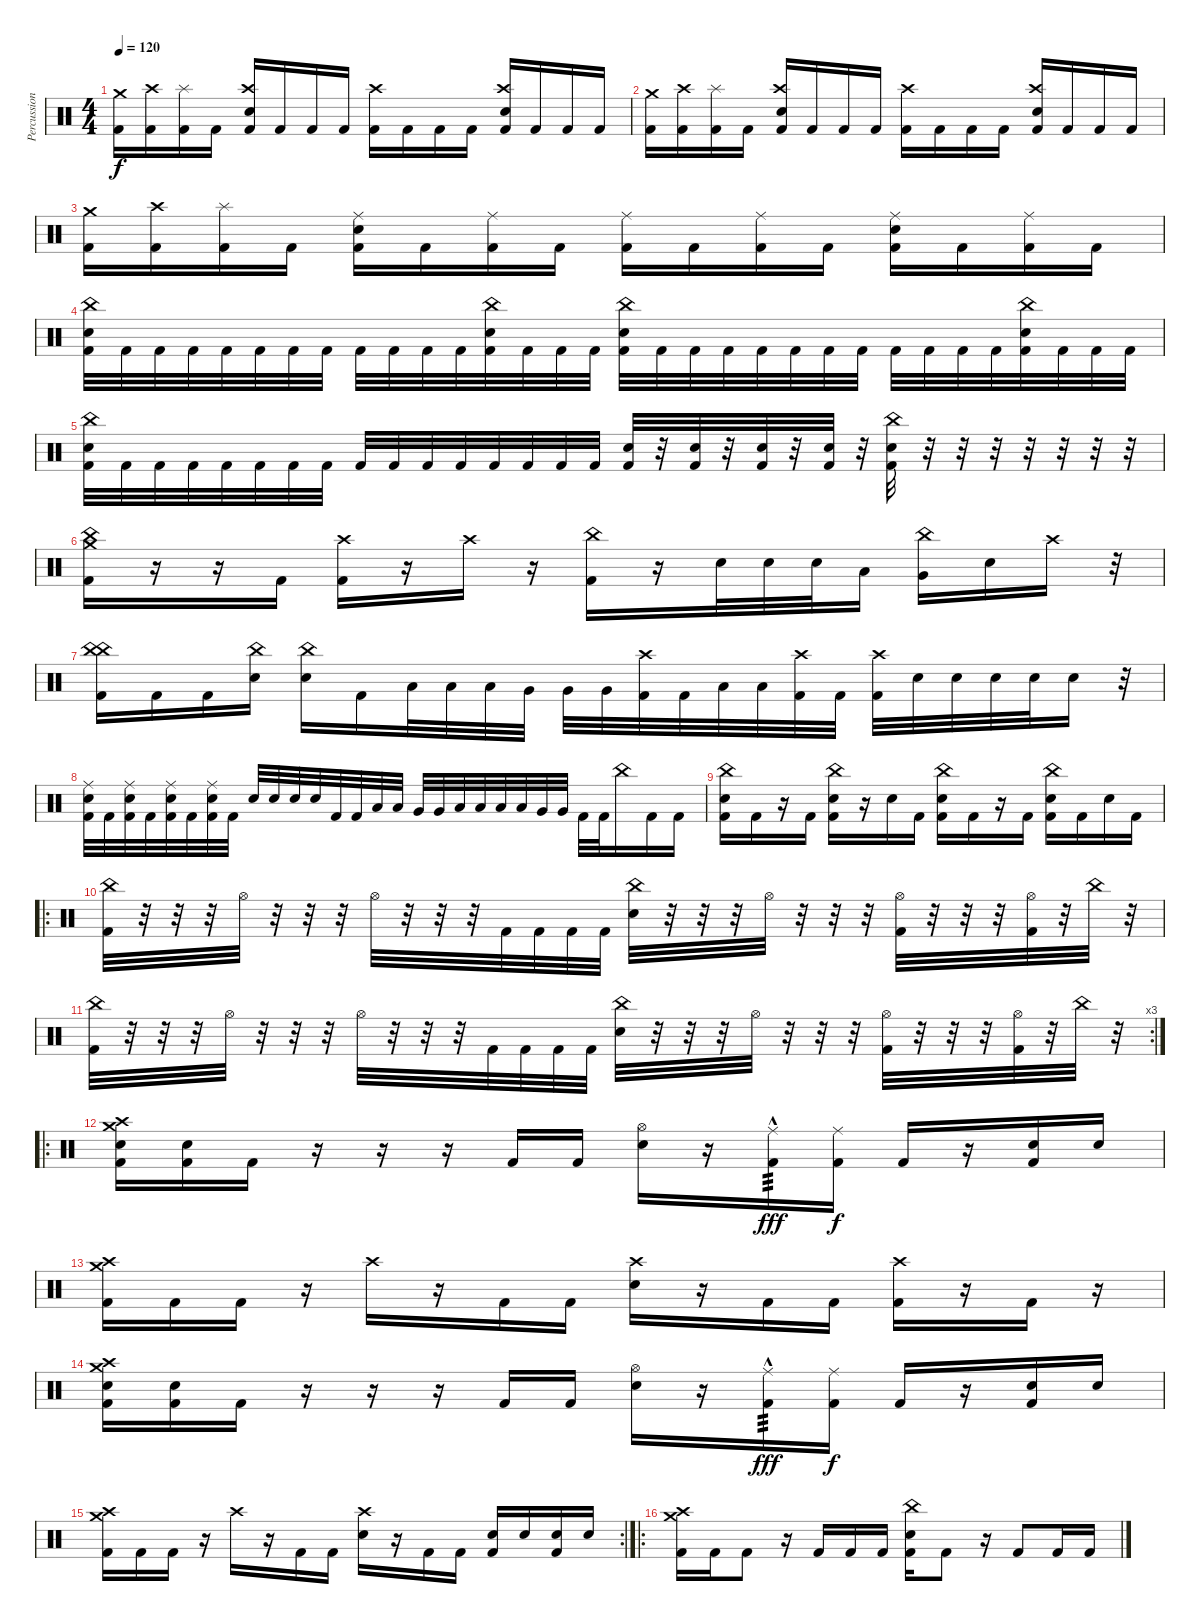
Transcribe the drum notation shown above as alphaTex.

\track ("Percussion" "Percussion") {instrument percussion bank 177}
\staff
\articulation defaults
\ts (4 4)
\tempo 120
\clef neutral
\ks c
("Crash medium (hit)" "Kick (hit) 2").16{dy f} ("Crash high (hit)" "Kick (hit) 2").16 ("Splash (hit)" "Kick (hit) 2").16 "Kick (hit) 2".16 ("Crash high (hit)" "Electric Snare (hit)" "Kick (hit) 2").16 "Kick (hit) 2".16 "Kick (hit) 2".16 "Kick (hit) 2".16 ("Crash high (hit)" "Kick (hit) 2").16 "Kick (hit) 2".16 "Kick (hit) 2".16 "Kick (hit) 2".16 ("Crash high (hit)" "Electric Snare (hit)" "Kick (hit) 2").16 "Kick (hit) 2".16 "Kick (hit) 2".16 "Kick (hit) 2".16 |
("Crash medium (hit)" "Kick (hit) 2").16 ("Crash high (hit)" "Kick (hit) 2").16 ("Splash (hit)" "Kick (hit) 2").16 "Kick (hit) 2".16 ("Crash high (hit)" "Electric Snare (hit)" "Kick (hit) 2").16 "Kick (hit) 2".16 "Kick (hit) 2".16 "Kick (hit) 2".16 ("Crash high (hit)" "Kick (hit) 2").16 "Kick (hit) 2".16 "Kick (hit) 2".16 "Kick (hit) 2".16 ("Crash high (hit)" "Electric Snare (hit)" "Kick (hit) 2").16 "Kick (hit) 2".16 "Kick (hit) 2".16 "Kick (hit) 2".16 |
("Crash medium (hit)" "Kick (hit) 2").16 ("Crash high (hit)" "Kick (hit) 2").16 ("Splash (hit)" "Kick (hit) 2").16 "Kick (hit) 2".16 ("Ride (middle)" "Electric Snare (hit)" "Kick (hit) 2").16 "Kick (hit) 2".16 ("Ride (middle)" "Kick (hit) 2").16 "Kick (hit) 2".16 ("Ride (middle)" "Kick (hit) 2").16 "Kick (hit) 2".16 ("Ride (middle)" "Kick (hit) 2").16 "Kick (hit) 2".16 ("Ride (middle)" "Electric Snare (hit)" "Kick (hit) 2").16 "Kick (hit) 2".16 ("Ride (middle)" "Kick (hit) 2").16 "Kick (hit) 2".16 |
("China (hit)" "Electric Snare (hit)" "Kick (hit) 2").32 "Kick (hit) 2".32 "Kick (hit) 2".32 "Kick (hit) 2".32 "Kick (hit) 2".32 "Kick (hit) 2".32 "Kick (hit) 2".32 "Kick (hit) 2".32 "Kick (hit) 2".32 "Kick (hit) 2".32 "Kick (hit) 2".32 "Kick (hit) 2".32 ("China (hit)" "Electric Snare (hit)" "Kick (hit) 2").32 "Kick (hit) 2".32 "Kick (hit) 2".32 "Kick (hit) 2".32 ("China (hit)" "Electric Snare (hit)" "Kick (hit) 2").32 "Kick (hit) 2".32 "Kick (hit) 2".32 "Kick (hit) 2".32 "Kick (hit) 2".32 "Kick (hit) 2".32 "Kick (hit) 2".32 "Kick (hit) 2".32 "Kick (hit) 2".32 "Kick (hit) 2".32 "Kick (hit) 2".32 "Kick (hit) 2".32 ("China (hit)" "Electric Snare (hit)" "Kick (hit) 2").32 "Kick (hit) 2".32 "Kick (hit) 2".32 "Kick (hit) 2".32 |
("China (hit)" "Electric Snare (hit)" "Kick (hit) 2").32 "Kick (hit) 2".32 "Kick (hit) 2".32 "Kick (hit) 2".32 "Kick (hit) 2".32 "Kick (hit) 2".32 "Kick (hit) 2".32 "Kick (hit) 2".32 "Kick (hit) 2".32 "Kick (hit) 2".32 "Kick (hit) 2".32 "Kick (hit) 2".32 "Kick (hit) 2".32 "Kick (hit) 2".32 "Kick (hit) 2".32 "Kick (hit) 2".32 ("Electric Snare (hit)" "Kick (hit) 2").32 r.32 ("Electric Snare (hit)" "Kick (hit) 2").32 r.32 ("Electric Snare (hit)" "Kick (hit) 2").32 r.32 ("Electric Snare (hit)" "Kick (hit) 2").32 r.32 ("China (hit)" "Electric Snare (hit)" "Kick (hit) 2").32 r.32 r.32 r.32 r.32 r.32 r.32 r.32 |
("Crash medium (hit)" "China (hit)" "Kick (hit) 2").16 r.16 r.16 "Kick (hit) 2".16 ("Crash high (hit)" "Kick (hit) 2").16 r.16 "Crash high (hit)".16 r.16 ("China (hit)" "Kick (hit) 2").16 r.16 "Electric Snare (hit)".32 "Electric Snare (hit)".32 "Electric Snare (hit)".32 "Low Floor Tom (hit)".16 ("China (hit)" "Very Low Tom (hit)").16 "Electric Snare (hit)".16 "Crash high (hit)".16 r.32 |
("China (hit)" "China (hit)" "Kick (hit) 2").16 "Kick (hit) 2".16 "Kick (hit) 2".16 ("China (hit)" "Electric Snare (hit)").16 ("China (hit)" "Electric Snare (hit)").16 "Kick (hit) 2".16 "Low Floor Tom (hit)".32 "Low Floor Tom (hit)".32 "Low Floor Tom (hit)".32 "Very Low Tom (hit)".32 "Very Low Tom (hit)".32 "Very Low Tom (hit)".32 ("Crash high (hit)" "Kick (hit) 2").32 "Kick (hit) 2".32 "Low Tom (hit)".32 "Low Tom (hit)".32 ("Crash high (hit)" "Kick (hit) 2").32 "Kick (hit) 2".32 ("Crash high (hit)" "Kick (hit) 2").32 "Electric Snare (hit)".32 "Electric Snare (hit)".32 "Electric Snare (hit)".32 "Electric Snare (hit)".32 "Electric Snare (hit)".16 r.32 |
("Ride (middle)" "Electric Snare (hit)" "Kick (hit) 2").32 "Kick (hit) 2".32 ("Ride (middle)" "Electric Snare (hit)" "Kick (hit) 2").32 "Kick (hit) 2".32 ("Ride (middle)" "Electric Snare (hit)" "Kick (hit) 2").32 "Kick (hit) 2".32 ("Ride (middle)" "Electric Snare (hit)" "Kick (hit) 2").32 "Kick (hit) 2".32 "Electric Snare (hit)".32 "Electric Snare (hit)".32 "Electric Snare (hit)".32 "Electric Snare (hit)".32 "Kick (hit) 2".32 "Kick (hit) 2".32 "Low Floor Tom (hit)".32 "Low Floor Tom (hit)".32 "Very Low Tom (hit)".32 "Very Low Tom (hit)".32 "Low Floor Tom (hit)".32 "Low Floor Tom (hit)".32 "Low Floor Tom (hit)".32 "Low Floor Tom (hit)".32 "Very Low Tom (hit)".32 "Very Low Tom (hit)".32 "Kick (hit) 2".32 "Kick (hit) 2".32 "China (hit)".16 "Kick (hit) 2".16 "Kick (hit) 2".16 |
("China (hit)" "Electric Snare (hit)" "Kick (hit) 2").16 "Kick (hit) 2".16 r.16 "Kick (hit) 2".16 ("China (hit)" "Electric Snare (hit)" "Kick (hit) 2").16 r.16 "Electric Snare (hit)".16 "Kick (hit) 2".16 ("China (hit)" "Electric Snare (hit)" "Kick (hit) 2").16 "Kick (hit) 2".16 r.16 "Kick (hit) 2".16 ("China (hit)" "Electric Snare (hit)" "Kick (hit) 2").16 "Kick (hit) 2".16 "Electric Snare (hit)".16 "Kick (hit) 2".16 |
\ro
("China (hit)" "Kick (hit) 2").32 r.32 r.32 r.32 "Hi-Hat (open)".32 r.32 r.32 r.32 "Hi-Hat (open)".32 r.32 r.32 r.32 "Kick (hit) 2".32 "Kick (hit) 2".32 "Kick (hit) 2".32 "Kick (hit) 2".32 ("China (hit)" "Electric Snare (hit)").32 r.32 r.32 r.32 "Hi-Hat (open)".32 r.32 r.32 r.32 ("Hi-Hat (open)" "Kick (hit) 2").32 r.32 r.32 r.32 ("Hi-Hat (open)" "Kick (hit) 2").32 r.32 "China (hit)".32 r.32 |
\rc 3
("China (hit)" "Kick (hit) 2").32 r.32 r.32 r.32 "Hi-Hat (open)".32 r.32 r.32 r.32 "Hi-Hat (open)".32 r.32 r.32 r.32 "Kick (hit) 2".32 "Kick (hit) 2".32 "Kick (hit) 2".32 "Kick (hit) 2".32 ("China (hit)" "Electric Snare (hit)").32 r.32 r.32 r.32 "Hi-Hat (open)".32 r.32 r.32 r.32 ("Hi-Hat (open)" "Kick (hit) 2").32 r.32 r.32 r.32 ("Hi-Hat (open)" "Kick (hit) 2").32 r.32 "China (hit)".32 r.32 |
\ro
("Crash medium (hit)" "Crash high (hit)" "Electric Snare (hit)" "Kick (hit) 2").16 ("Electric Snare (hit)" "Kick (hit) 2").16 "Kick (hit) 2".16 r.16 r.16 r.16 "Kick (hit) 2".16 "Kick (hit) 2".16 ("Hi-Hat (open)" "Electric Snare (hit)").16 r.16 ("Ride (middle)"{hac} "Kick (hit) 2").16{tp 3 dy fff} ("Ride (middle)" "Kick (hit) 2").16{dy f} "Kick (hit) 2".16 r.16 ("Electric Snare (hit)" "Kick (hit) 2").16 "Electric Snare (hit)".16 |
("Crash medium (hit)" "Crash high (hit)" "Kick (hit) 2").16 "Kick (hit) 2".16 "Kick (hit) 2".16 r.16 "Crash high (hit)".16 r.16 "Kick (hit) 2".16 "Kick (hit) 2".16 ("Crash high (hit)" "Electric Snare (hit)").16 r.16 "Kick (hit) 2".16 "Kick (hit) 2".16 ("Crash high (hit)" "Kick (hit) 2").16 r.16 "Kick (hit) 2".16 r.16 |
("Crash medium (hit)" "Crash high (hit)" "Electric Snare (hit)" "Kick (hit) 2").16 ("Electric Snare (hit)" "Kick (hit) 2").16 "Kick (hit) 2".16 r.16 r.16 r.16 "Kick (hit) 2".16 "Kick (hit) 2".16 ("Hi-Hat (open)" "Electric Snare (hit)").16 r.16 ("Ride (middle)"{hac} "Kick (hit) 2").16{tp 3 dy fff} ("Ride (middle)" "Kick (hit) 2").16{dy f} "Kick (hit) 2".16 r.16 ("Electric Snare (hit)" "Kick (hit) 2").16 "Electric Snare (hit)".16 |
\rc 2
("Crash medium (hit)" "Crash high (hit)" "Kick (hit) 2").16 "Kick (hit) 2".16 "Kick (hit) 2".16 r.16 "Crash high (hit)".16 r.16 "Kick (hit) 2".16 "Kick (hit) 2".16 ("Crash high (hit)" "Electric Snare (hit)").16 r.16 "Kick (hit) 2".16 "Kick (hit) 2".16 ("Electric Snare (hit)" "Kick (hit) 2").16 "Electric Snare (hit)".16 ("Electric Snare (hit)" "Kick (hit) 2").16 "Electric Snare (hit)".16 |
\ro
("Crash medium (hit)" "Crash high (hit)" "Kick (hit) 2").16 "Kick (hit) 2".16 "Kick (hit) 2".8 r.16 "Kick (hit) 2".16 "Kick (hit) 2".16 "Kick (hit) 2".16 ("China (hit)" "Electric Snare (hit)" "Kick (hit) 2").16 "Kick (hit) 2".8 r.16 "Kick (hit) 2".8 "Kick (hit) 2".16 "Kick (hit) 2".16
